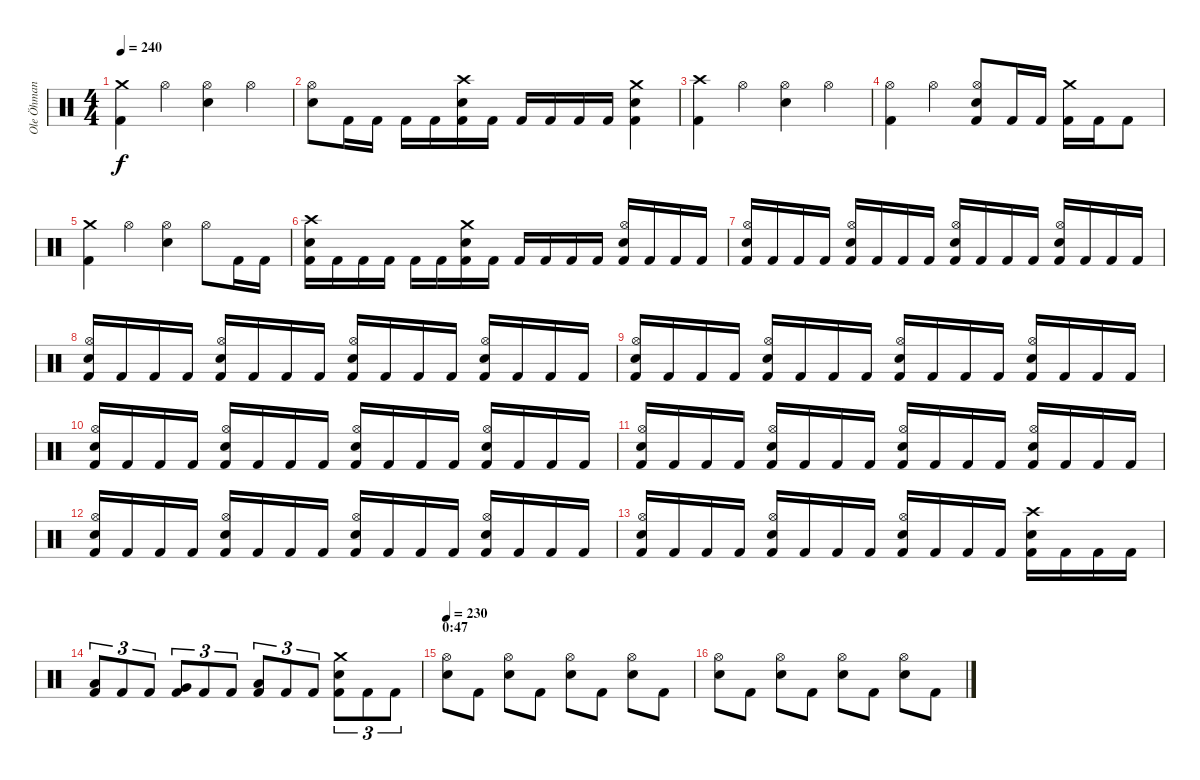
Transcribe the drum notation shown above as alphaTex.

\track ("Ole Öhman" "Ole Öhman") {instrument percussion}
\staff {score}
\articulation defaults
\ts (4 4)
\tempo 240
\clef neutral
\ks c
("Crash medium (hit)" "Kick (hit) 2").4{dy f} "Hi-Hat (open)".4 ("Hi-Hat (open)" "Electric Snare (hit)").4 "Hi-Hat (open)".4 |
("Hi-Hat (open)" "Electric Snare (hit)").8 "Kick (hit) 2".16 "Kick (hit) 2".16 "Kick (hit) 2".16 "Kick (hit) 2".16 ("Crash high (hit)" "Electric Snare (hit)" "Kick (hit) 2").16 "Kick (hit) 2".16 "Kick (hit) 2".16 "Kick (hit) 2".16 "Kick (hit) 2".16 "Kick (hit) 2".16 ("Crash medium (hit)" "Electric Snare (hit)" "Kick (hit) 2").4 |
("Crash high (hit)" "Kick (hit) 2").4 "Hi-Hat (open)".4 ("Hi-Hat (open)" "Electric Snare (hit)").4 "Hi-Hat (open)".4 |
("Hi-Hat (open)" "Kick (hit) 2").4 "Hi-Hat (open)".4 ("Hi-Hat (open)" "Electric Snare (hit)" "Kick (hit) 2").8 "Kick (hit) 2".16 "Kick (hit) 2".16 ("Crash medium (hit)" "Kick (hit) 2").16 "Kick (hit) 2".16 "Kick (hit) 2".8 |
("Crash medium (hit)" "Kick (hit) 2").4 "Hi-Hat (open)".4 ("Hi-Hat (open)" "Electric Snare (hit)").4 "Hi-Hat (open)".8 "Kick (hit) 2".16 "Kick (hit) 2".16 |
("Crash high (hit)" "Electric Snare (hit)" "Kick (hit) 2").16 "Kick (hit) 2".16 "Kick (hit) 2".16 "Kick (hit) 2".16 "Kick (hit) 2".16 "Kick (hit) 2".16 ("Crash medium (hit)" "Electric Snare (hit)" "Kick (hit) 2").16 "Kick (hit) 2".16 "Kick (hit) 2".16 "Kick (hit) 2".16 "Kick (hit) 2".16 "Kick (hit) 2".16 ("Hi-Hat (open)" "Electric Snare (hit)" "Kick (hit) 2").16 "Kick (hit) 2".16 "Kick (hit) 2".16 "Kick (hit) 2".16 |
("Hi-Hat (open)" "Electric Snare (hit)" "Kick (hit) 2").16 "Kick (hit) 2".16 "Kick (hit) 2".16 "Kick (hit) 2".16 ("Hi-Hat (open)" "Electric Snare (hit)" "Kick (hit) 2").16 "Kick (hit) 2".16 "Kick (hit) 2".16 "Kick (hit) 2".16 ("Hi-Hat (open)" "Electric Snare (hit)" "Kick (hit) 2").16 "Kick (hit) 2".16 "Kick (hit) 2".16 "Kick (hit) 2".16 ("Hi-Hat (open)" "Electric Snare (hit)" "Kick (hit) 2").16 "Kick (hit) 2".16 "Kick (hit) 2".16 "Kick (hit) 2".16 |
("Hi-Hat (open)" "Electric Snare (hit)" "Kick (hit) 2").16 "Kick (hit) 2".16 "Kick (hit) 2".16 "Kick (hit) 2".16 ("Hi-Hat (open)" "Electric Snare (hit)" "Kick (hit) 2").16 "Kick (hit) 2".16 "Kick (hit) 2".16 "Kick (hit) 2".16 ("Hi-Hat (open)" "Electric Snare (hit)" "Kick (hit) 2").16 "Kick (hit) 2".16 "Kick (hit) 2".16 "Kick (hit) 2".16 ("Hi-Hat (open)" "Electric Snare (hit)" "Kick (hit) 2").16 "Kick (hit) 2".16 "Kick (hit) 2".16 "Kick (hit) 2".16 |
("Hi-Hat (open)" "Electric Snare (hit)" "Kick (hit) 2").16 "Kick (hit) 2".16 "Kick (hit) 2".16 "Kick (hit) 2".16 ("Hi-Hat (open)" "Electric Snare (hit)" "Kick (hit) 2").16 "Kick (hit) 2".16 "Kick (hit) 2".16 "Kick (hit) 2".16 ("Hi-Hat (open)" "Electric Snare (hit)" "Kick (hit) 2").16 "Kick (hit) 2".16 "Kick (hit) 2".16 "Kick (hit) 2".16 ("Hi-Hat (open)" "Electric Snare (hit)" "Kick (hit) 2").16 "Kick (hit) 2".16 "Kick (hit) 2".16 "Kick (hit) 2".16 |
("Hi-Hat (open)" "Electric Snare (hit)" "Kick (hit) 2").16 "Kick (hit) 2".16 "Kick (hit) 2".16 "Kick (hit) 2".16 ("Hi-Hat (open)" "Electric Snare (hit)" "Kick (hit) 2").16 "Kick (hit) 2".16 "Kick (hit) 2".16 "Kick (hit) 2".16 ("Hi-Hat (open)" "Electric Snare (hit)" "Kick (hit) 2").16 "Kick (hit) 2".16 "Kick (hit) 2".16 "Kick (hit) 2".16 ("Hi-Hat (open)" "Electric Snare (hit)" "Kick (hit) 2").16 "Kick (hit) 2".16 "Kick (hit) 2".16 "Kick (hit) 2".16 |
("Hi-Hat (open)" "Electric Snare (hit)" "Kick (hit) 2").16 "Kick (hit) 2".16 "Kick (hit) 2".16 "Kick (hit) 2".16 ("Hi-Hat (open)" "Electric Snare (hit)" "Kick (hit) 2").16 "Kick (hit) 2".16 "Kick (hit) 2".16 "Kick (hit) 2".16 ("Hi-Hat (open)" "Electric Snare (hit)" "Kick (hit) 2").16 "Kick (hit) 2".16 "Kick (hit) 2".16 "Kick (hit) 2".16 ("Hi-Hat (open)" "Electric Snare (hit)" "Kick (hit) 2").16 "Kick (hit) 2".16 "Kick (hit) 2".16 "Kick (hit) 2".16 |
("Hi-Hat (open)" "Electric Snare (hit)" "Kick (hit) 2").16 "Kick (hit) 2".16 "Kick (hit) 2".16 "Kick (hit) 2".16 ("Hi-Hat (open)" "Electric Snare (hit)" "Kick (hit) 2").16 "Kick (hit) 2".16 "Kick (hit) 2".16 "Kick (hit) 2".16 ("Hi-Hat (open)" "Electric Snare (hit)" "Kick (hit) 2").16 "Kick (hit) 2".16 "Kick (hit) 2".16 "Kick (hit) 2".16 ("Hi-Hat (open)" "Electric Snare (hit)" "Kick (hit) 2").16 "Kick (hit) 2".16 "Kick (hit) 2".16 "Kick (hit) 2".16 |
("Hi-Hat (open)" "Electric Snare (hit)" "Kick (hit) 2").16 "Kick (hit) 2".16 "Kick (hit) 2".16 "Kick (hit) 2".16 ("Hi-Hat (open)" "Electric Snare (hit)" "Kick (hit) 2").16 "Kick (hit) 2".16 "Kick (hit) 2".16 "Kick (hit) 2".16 ("Hi-Hat (open)" "Electric Snare (hit)" "Kick (hit) 2").16 "Kick (hit) 2".16 "Kick (hit) 2".16 "Kick (hit) 2".16 ("Crash high (hit)" "Electric Snare (hit)" "Kick (hit) 2").16 "Kick (hit) 2".16 "Kick (hit) 2".16 "Kick (hit) 2".16 |
("Low Tom (hit)" "Kick (hit) 2").8{tu (3 2)} "Kick (hit) 2".8{tu (3 2)} "Kick (hit) 2".8{tu (3 2)} ("Very Low Tom (hit)" "Kick (hit) 2").8{tu (3 2)} "Kick (hit) 2".8{tu (3 2)} "Kick (hit) 2".8{tu (3 2)} ("Low Floor Tom (hit)" "Kick (hit) 2").8{tu (3 2)} "Kick (hit) 2".8{tu (3 2)} "Kick (hit) 2".8{tu (3 2)} ("Crash medium (hit)" "Electric Snare (hit)" "Kick (hit) 2").8{tu (3 2)} "Kick (hit) 2".8{tu (3 2)} "Kick (hit) 2".8{tu (3 2)} |
\section ("" "0:47")
\tempo 230
("Hi-Hat (open)" "Electric Snare (hit)").8 "Kick (hit) 2".8 ("Hi-Hat (open)" "Electric Snare (hit)").8 "Kick (hit) 2".8 ("Hi-Hat (open)" "Electric Snare (hit)").8 "Kick (hit) 2".8 ("Hi-Hat (open)" "Electric Snare (hit)").8 "Kick (hit) 2".8 |
("Hi-Hat (open)" "Electric Snare (hit)").8 "Kick (hit) 2".8 ("Hi-Hat (open)" "Electric Snare (hit)").8 "Kick (hit) 2".8 ("Hi-Hat (open)" "Electric Snare (hit)").8 "Kick (hit) 2".8 ("Hi-Hat (open)" "Electric Snare (hit)").8 "Kick (hit) 2".8
